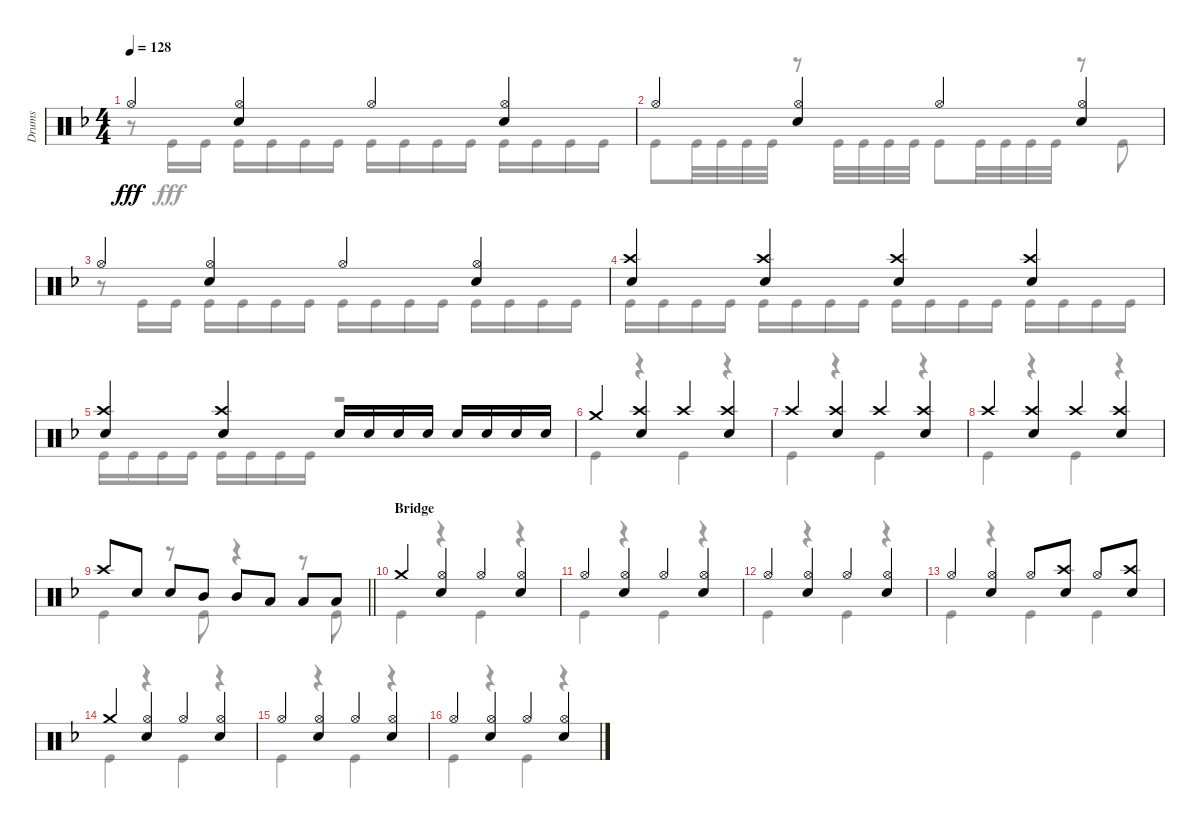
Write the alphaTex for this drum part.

\track ("Drums" "Drums") {instrument percussion}
\staff {score}
\articulation defaults
\voice
\ts (4 4)
\tempo 128
\clef neutral
\ks dminor "Hi-Hat (open)".4{dy fff}
("Hi-Hat (open)" "Electric Snare (hit)").4 "Hi-Hat (open)".4 ("Hi-Hat (open)" "Electric Snare (hit)").4 |
"Hi-Hat (open)".4 ("Hi-Hat (open)" "Electric Snare (hit)").4 "Hi-Hat (open)".4 ("Hi-Hat (open)" "Electric Snare (hit)").4 |
"Hi-Hat (open)".4 ("Hi-Hat (open)" "Electric Snare (hit)").4 "Hi-Hat (open)".4 ("Hi-Hat (open)" "Electric Snare (hit)").4 |
("Crash high (hit)" "Electric Snare (hit)").4 ("Crash high (hit)" "Electric Snare (hit)").4 ("Crash high (hit)" "Electric Snare (hit)").4 ("Crash high (hit)" "Electric Snare (hit)").4 |
("Crash high (hit)" "Electric Snare (hit)").4 ("Crash high (hit)" "Electric Snare (hit)").4 "Electric Snare (hit)".16 "Electric Snare (hit)".16 "Electric Snare (hit)".16 "Electric Snare (hit)".16 "Electric Snare (hit)".16 "Electric Snare (hit)".16 "Electric Snare (hit)".16 "Electric Snare (hit)".16 |
"Crash medium (hit)".4 ("Crash high (hit)" "Electric Snare (hit)").4 "Crash high (hit)".4 ("Crash high (hit)" "Electric Snare (hit)").4 |
"Crash high (hit)".4 ("Crash high (hit)" "Electric Snare (hit)").4 "Crash high (hit)".4 ("Crash high (hit)" "Electric Snare (hit)").4 |
"Crash high (hit)".4 ("Crash high (hit)" "Electric Snare (hit)").4 "Crash high (hit)".4 ("Crash high (hit)" "Electric Snare (hit)").4 |
\barLineRight lightlight "Crash high (hit)".8 "Electric Snare (hit)".8 "Electric Snare (hit)".8 "Mid Tom (hit)".8 "Mid Tom (hit)".8 "Low Tom (hit)".8 "Low Tom (hit)".8 "Low Tom (hit)".8
|
\section ("" "Bridge")
"Crash medium (hit)".4 ("Hi-Hat (open)" "Electric Snare (hit)").4 "Hi-Hat (open)".4 ("Hi-Hat (open)" "Electric Snare (hit)").4 |
"Hi-Hat (open)".4 ("Hi-Hat (open)" "Electric Snare (hit)").4 "Hi-Hat (open)".4 ("Hi-Hat (open)" "Electric Snare (hit)").4 |
"Hi-Hat (open)".4 ("Hi-Hat (open)" "Electric Snare (hit)").4 "Hi-Hat (open)".4 ("Hi-Hat (open)" "Electric Snare (hit)").4 |
"Hi-Hat (open)".4 ("Hi-Hat (open)" "Electric Snare (hit)").4 "Hi-Hat (open)".8 ("Crash high (hit)" "Electric Snare (hit)").8 "Hi-Hat (open)".8 ("Crash high (hit)" "Electric Snare (hit)").8 |
"Crash medium (hit)".4 ("Hi-Hat (open)" "Electric Snare (hit)").4 "Hi-Hat (open)".4 ("Hi-Hat (open)" "Electric Snare (hit)").4 |
"Hi-Hat (open)".4 ("Hi-Hat (open)" "Electric Snare (hit)").4 "Hi-Hat (open)".4 ("Hi-Hat (open)" "Electric Snare (hit)").4 |
"Hi-Hat (open)".4 ("Hi-Hat (open)" "Electric Snare (hit)").4 "Hi-Hat (open)".4 ("Hi-Hat (open)" "Electric Snare (hit)").4
\voice
\clef neutral
\ottava regular
\simile none
\ks dminor
r.8{dy fff} "Kick (hit)".16 "Kick (hit)".16 "Kick (hit)".16 "Kick (hit)".16 "Kick (hit)".16 "Kick (hit)".16 "Kick (hit)".16 "Kick (hit)".16 "Kick (hit)".16 "Kick (hit)".16 "Kick (hit)".16 "Kick (hit)".16 "Kick (hit)".16 "Kick (hit)".16 |
"Kick (hit)".8 "Kick (hit)".32 "Kick (hit)".32 "Kick (hit)".32 "Kick (hit)".32 r.8 "Kick (hit)".32 "Kick (hit)".32 "Kick (hit)".32 "Kick (hit)".32 "Kick (hit)".8 "Kick (hit)".32 "Kick (hit)".32 "Kick (hit)".32 "Kick (hit)".32 r.8 "Kick (hit)".8 |
r.8 "Kick (hit)".16 "Kick (hit)".16 "Kick (hit)".16 "Kick (hit)".16 "Kick (hit)".16 "Kick (hit)".16 "Kick (hit)".16 "Kick (hit)".16 "Kick (hit)".16 "Kick (hit)".16 "Kick (hit)".16 "Kick (hit)".16 "Kick (hit)".16 "Kick (hit)".16 |
"Kick (hit)".16 "Kick (hit)".16 "Kick (hit)".16 "Kick (hit)".16 "Kick (hit)".16 "Kick (hit)".16 "Kick (hit)".16 "Kick (hit)".16 "Kick (hit)".16 "Kick (hit)".16 "Kick (hit)".16 "Kick (hit)".16 "Kick (hit)".16 "Kick (hit)".16 "Kick (hit)".16 "Kick (hit)".16 |
"Kick (hit)".16 "Kick (hit)".16 "Kick (hit)".16 "Kick (hit)".16 "Kick (hit)".16 "Kick (hit)".16 "Kick (hit)".16 "Kick (hit)".16 r.2 |
"Kick (hit)".4 r.4 "Kick (hit)".4 r.4 |
"Kick (hit)".4 r.4 "Kick (hit)".4 r.4 |
"Kick (hit)".4 r.4 "Kick (hit)".4 r.4 |
\barLineRight lightlight "Kick (hit)".4
r.8 "Kick (hit)".8 r.4 r.8 "Kick (hit)".8 |
"Kick (hit)".4 r.4 "Kick (hit)".4 r.4 |
"Kick (hit)".4 r.4 "Kick (hit)".4 r.4 |
"Kick (hit)".4 r.4 "Kick (hit)".4 r.4 |
"Kick (hit)".4 r.4 "Kick (hit)".4 "Kick (hit)".4 |
"Kick (hit)".4 r.4 "Kick (hit)".4 r.4 |
"Kick (hit)".4 r.4 "Kick (hit)".4 r.4 |
"Kick (hit)".4 r.4 "Kick (hit)".4 r.4
